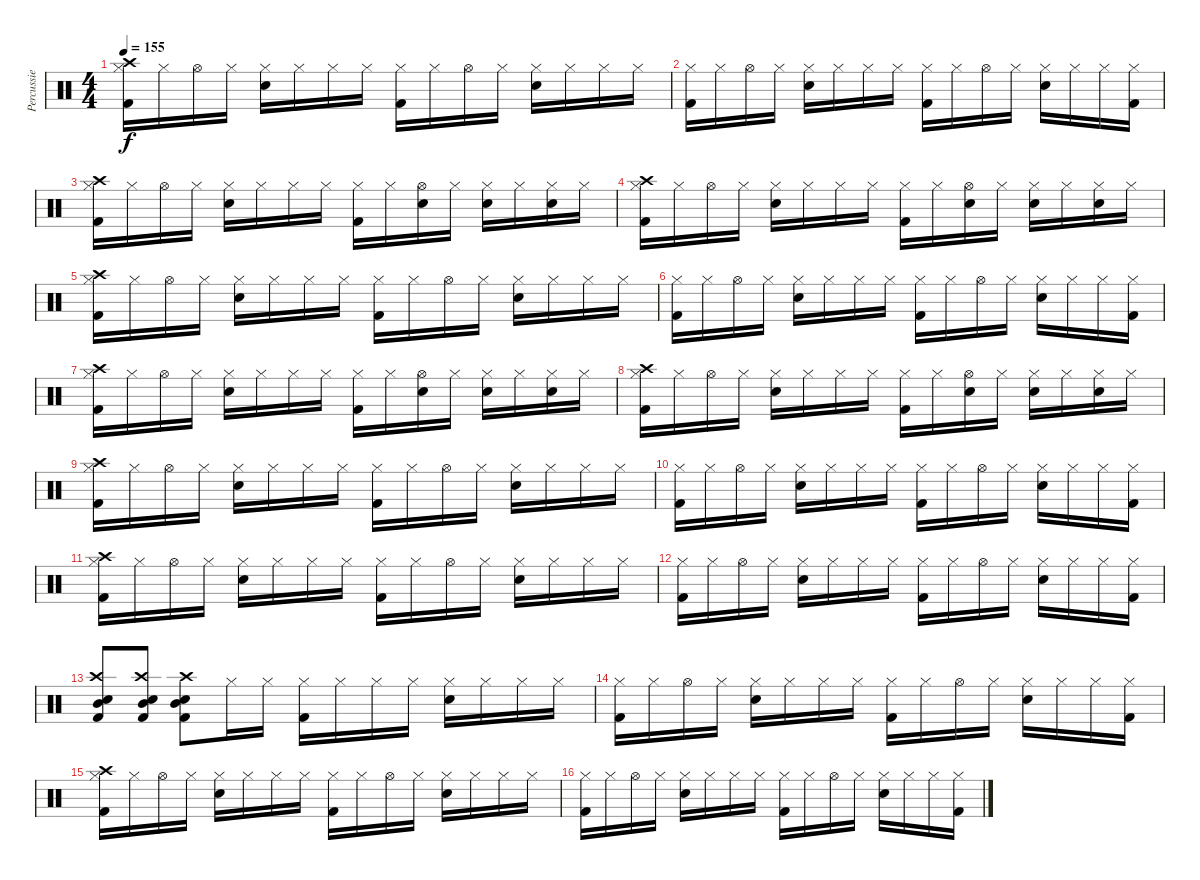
\track ("Percussie" "Percussie") {instrument percussion}
\staff {score}
\articulation defaults
\ts (4 4)
\tempo 155
\clef neutral
\ks c
("Kick (hit) 2" "Hi-Hat (closed)" "Crash high (hit)").16{dy f} "Hi-Hat (closed)".16 "Hi-Hat (open)".16 "Hi-Hat (closed)".16 ("Electric Snare (hit)" "Hi-Hat (closed)").16 "Hi-Hat (closed)".16 "Hi-Hat (closed)".16 "Hi-Hat (closed)".16 ("Kick (hit) 2" "Hi-Hat (closed)").16 "Hi-Hat (closed)".16 "Hi-Hat (open)".16 "Hi-Hat (closed)".16 ("Electric Snare (hit)" "Hi-Hat (closed)").16 "Hi-Hat (closed)".16 "Hi-Hat (closed)".16 "Hi-Hat (closed)".16 |
("Kick (hit) 2" "Hi-Hat (closed)").16 "Hi-Hat (closed)".16 "Hi-Hat (open)".16 "Hi-Hat (closed)".16 ("Electric Snare (hit)" "Hi-Hat (closed)").16 "Hi-Hat (closed)".16 "Hi-Hat (closed)".16 "Hi-Hat (closed)".16 ("Kick (hit) 2" "Hi-Hat (closed)").16 "Hi-Hat (closed)".16 "Hi-Hat (open)".16 "Hi-Hat (closed)".16 ("Electric Snare (hit)" "Hi-Hat (closed)").16 "Hi-Hat (closed)".16 "Hi-Hat (closed)".16 ("Kick (hit) 2" "Hi-Hat (closed)").16 |
("Kick (hit) 2" "Hi-Hat (closed)" "Crash high (hit)").16 "Hi-Hat (closed)".16 "Hi-Hat (open)".16 "Hi-Hat (closed)".16 ("Electric Snare (hit)" "Hi-Hat (closed)").16 "Hi-Hat (closed)".16 "Hi-Hat (closed)".16 "Hi-Hat (closed)".16 ("Kick (hit) 2" "Hi-Hat (closed)").16 "Hi-Hat (closed)".16 ("Electric Snare (hit)" "Hi-Hat (open)").16 "Hi-Hat (closed)".16 ("Electric Snare (hit)" "Hi-Hat (closed)").16 "Hi-Hat (closed)".16 ("Electric Snare (hit)" "Hi-Hat (closed)").16 "Hi-Hat (closed)".16 |
("Kick (hit) 2" "Hi-Hat (closed)" "Crash high (hit)").16 "Hi-Hat (closed)".16 "Hi-Hat (open)".16 "Hi-Hat (closed)".16 ("Electric Snare (hit)" "Hi-Hat (closed)").16 "Hi-Hat (closed)".16 "Hi-Hat (closed)".16 "Hi-Hat (closed)".16 ("Kick (hit) 2" "Hi-Hat (closed)").16 "Hi-Hat (closed)".16 ("Electric Snare (hit)" "Hi-Hat (open)").16 "Hi-Hat (closed)".16 ("Electric Snare (hit)" "Hi-Hat (closed)").16 "Hi-Hat (closed)".16 ("Electric Snare (hit)" "Hi-Hat (closed)").16 "Hi-Hat (closed)".16 |
("Kick (hit) 2" "Hi-Hat (closed)" "Crash high (hit)").16 "Hi-Hat (closed)".16 "Hi-Hat (open)".16 "Hi-Hat (closed)".16 ("Electric Snare (hit)" "Hi-Hat (closed)").16 "Hi-Hat (closed)".16 "Hi-Hat (closed)".16 "Hi-Hat (closed)".16 ("Kick (hit) 2" "Hi-Hat (closed)").16 "Hi-Hat (closed)".16 "Hi-Hat (open)".16 "Hi-Hat (closed)".16 ("Electric Snare (hit)" "Hi-Hat (closed)").16 "Hi-Hat (closed)".16 "Hi-Hat (closed)".16 "Hi-Hat (closed)".16 |
("Kick (hit) 2" "Hi-Hat (closed)").16 "Hi-Hat (closed)".16 "Hi-Hat (open)".16 "Hi-Hat (closed)".16 ("Electric Snare (hit)" "Hi-Hat (closed)").16 "Hi-Hat (closed)".16 "Hi-Hat (closed)".16 "Hi-Hat (closed)".16 ("Kick (hit) 2" "Hi-Hat (closed)").16 "Hi-Hat (closed)".16 "Hi-Hat (open)".16 "Hi-Hat (closed)".16 ("Electric Snare (hit)" "Hi-Hat (closed)").16 "Hi-Hat (closed)".16 "Hi-Hat (closed)".16 ("Kick (hit) 2" "Hi-Hat (closed)").16 |
("Kick (hit) 2" "Hi-Hat (closed)" "Crash high (hit)").16 "Hi-Hat (closed)".16 "Hi-Hat (open)".16 "Hi-Hat (closed)".16 ("Electric Snare (hit)" "Hi-Hat (closed)").16 "Hi-Hat (closed)".16 "Hi-Hat (closed)".16 "Hi-Hat (closed)".16 ("Kick (hit) 2" "Hi-Hat (closed)").16 "Hi-Hat (closed)".16 ("Electric Snare (hit)" "Hi-Hat (open)").16 "Hi-Hat (closed)".16 ("Electric Snare (hit)" "Hi-Hat (closed)").16 "Hi-Hat (closed)".16 ("Electric Snare (hit)" "Hi-Hat (closed)").16 "Hi-Hat (closed)".16 |
("Kick (hit) 2" "Hi-Hat (closed)" "Crash high (hit)").16 "Hi-Hat (closed)".16 "Hi-Hat (open)".16 "Hi-Hat (closed)".16 ("Electric Snare (hit)" "Hi-Hat (closed)").16 "Hi-Hat (closed)".16 "Hi-Hat (closed)".16 "Hi-Hat (closed)".16 ("Kick (hit) 2" "Hi-Hat (closed)").16 "Hi-Hat (closed)".16 ("Electric Snare (hit)" "Hi-Hat (open)").16 "Hi-Hat (closed)".16 ("Electric Snare (hit)" "Hi-Hat (closed)").16 "Hi-Hat (closed)".16 ("Electric Snare (hit)" "Hi-Hat (closed)").16 "Hi-Hat (closed)".16 |
("Kick (hit) 2" "Hi-Hat (closed)" "Crash high (hit)").16 "Hi-Hat (closed)".16 "Hi-Hat (open)".16 "Hi-Hat (closed)".16 ("Electric Snare (hit)" "Hi-Hat (closed)").16 "Hi-Hat (closed)".16 "Hi-Hat (closed)".16 "Hi-Hat (closed)".16 ("Kick (hit) 2" "Hi-Hat (closed)").16 "Hi-Hat (closed)".16 "Hi-Hat (open)".16 "Hi-Hat (closed)".16 ("Electric Snare (hit)" "Hi-Hat (closed)").16 "Hi-Hat (closed)".16 "Hi-Hat (closed)".16 "Hi-Hat (closed)".16 |
("Kick (hit) 2" "Hi-Hat (closed)").16 "Hi-Hat (closed)".16 "Hi-Hat (open)".16 "Hi-Hat (closed)".16 ("Electric Snare (hit)" "Hi-Hat (closed)").16 "Hi-Hat (closed)".16 "Hi-Hat (closed)".16 "Hi-Hat (closed)".16 ("Kick (hit) 2" "Hi-Hat (closed)").16 "Hi-Hat (closed)".16 "Hi-Hat (open)".16 "Hi-Hat (closed)".16 ("Electric Snare (hit)" "Hi-Hat (closed)").16 "Hi-Hat (closed)".16 "Hi-Hat (closed)".16 ("Kick (hit) 2" "Hi-Hat (closed)").16 |
("Kick (hit) 2" "Hi-Hat (closed)" "Crash high (hit)").16 "Hi-Hat (closed)".16 "Hi-Hat (open)".16 "Hi-Hat (closed)".16 ("Electric Snare (hit)" "Hi-Hat (closed)").16 "Hi-Hat (closed)".16 "Hi-Hat (closed)".16 "Hi-Hat (closed)".16 ("Kick (hit) 2" "Hi-Hat (closed)").16 "Hi-Hat (closed)".16 "Hi-Hat (open)".16 "Hi-Hat (closed)".16 ("Electric Snare (hit)" "Hi-Hat (closed)").16 "Hi-Hat (closed)".16 "Hi-Hat (closed)".16 "Hi-Hat (closed)".16 |
("Kick (hit) 2" "Hi-Hat (closed)").16 "Hi-Hat (closed)".16 "Hi-Hat (open)".16 "Hi-Hat (closed)".16 ("Electric Snare (hit)" "Hi-Hat (closed)").16 "Hi-Hat (closed)".16 "Hi-Hat (closed)".16 "Hi-Hat (closed)".16 ("Kick (hit) 2" "Hi-Hat (closed)").16 "Hi-Hat (closed)".16 "Hi-Hat (open)".16 "Hi-Hat (closed)".16 ("Electric Snare (hit)" "Hi-Hat (closed)").16 "Hi-Hat (closed)".16 "Hi-Hat (closed)".16 ("Kick (hit) 2" "Hi-Hat (closed)").16 |
("Kick (hit) 2" "Electric Snare (hit)" "Mid Tom (hit)" "Crash high (hit)").8 ("Kick (hit) 2" "Electric Snare (hit)" "Mid Tom (hit)" "Crash high (hit)").8 ("Kick (hit) 2" "Electric Snare (hit)" "Mid Tom (hit)" "Crash high (hit)").8 "Hi-Hat (closed)".16 "Hi-Hat (closed)".16 ("Kick (hit) 2" "Hi-Hat (closed)").16 "Hi-Hat (closed)".16 "Hi-Hat (closed)".16 "Hi-Hat (closed)".16 ("Electric Snare (hit)" "Hi-Hat (closed)").16 "Hi-Hat (closed)".16 "Hi-Hat (closed)".16 "Hi-Hat (closed)".16 |
("Kick (hit) 2" "Hi-Hat (closed)").16 "Hi-Hat (closed)".16 "Hi-Hat (open)".16 "Hi-Hat (closed)".16 ("Electric Snare (hit)" "Hi-Hat (closed)").16 "Hi-Hat (closed)".16 "Hi-Hat (closed)".16 "Hi-Hat (closed)".16 ("Kick (hit) 2" "Hi-Hat (closed)").16 "Hi-Hat (closed)".16 "Hi-Hat (open)".16 "Hi-Hat (closed)".16 ("Electric Snare (hit)" "Hi-Hat (closed)").16 "Hi-Hat (closed)".16 "Hi-Hat (closed)".16 ("Kick (hit) 2" "Hi-Hat (closed)").16 |
("Kick (hit) 2" "Hi-Hat (closed)" "Crash high (hit)").16 "Hi-Hat (closed)".16 "Hi-Hat (open)".16 "Hi-Hat (closed)".16 ("Electric Snare (hit)" "Hi-Hat (closed)").16 "Hi-Hat (closed)".16 "Hi-Hat (closed)".16 "Hi-Hat (closed)".16 ("Kick (hit) 2" "Hi-Hat (closed)").16 "Hi-Hat (closed)".16 "Hi-Hat (open)".16 "Hi-Hat (closed)".16 ("Electric Snare (hit)" "Hi-Hat (closed)").16 "Hi-Hat (closed)".16 "Hi-Hat (closed)".16 "Hi-Hat (closed)".16 |
("Kick (hit) 2" "Hi-Hat (closed)").16 "Hi-Hat (closed)".16 "Hi-Hat (open)".16 "Hi-Hat (closed)".16 ("Electric Snare (hit)" "Hi-Hat (closed)").16 "Hi-Hat (closed)".16 "Hi-Hat (closed)".16 "Hi-Hat (closed)".16 ("Kick (hit) 2" "Hi-Hat (closed)").16 "Hi-Hat (closed)".16 "Hi-Hat (open)".16 "Hi-Hat (closed)".16 ("Electric Snare (hit)" "Hi-Hat (closed)").16 "Hi-Hat (closed)".16 "Hi-Hat (closed)".16 ("Kick (hit) 2" "Hi-Hat (closed)").16
